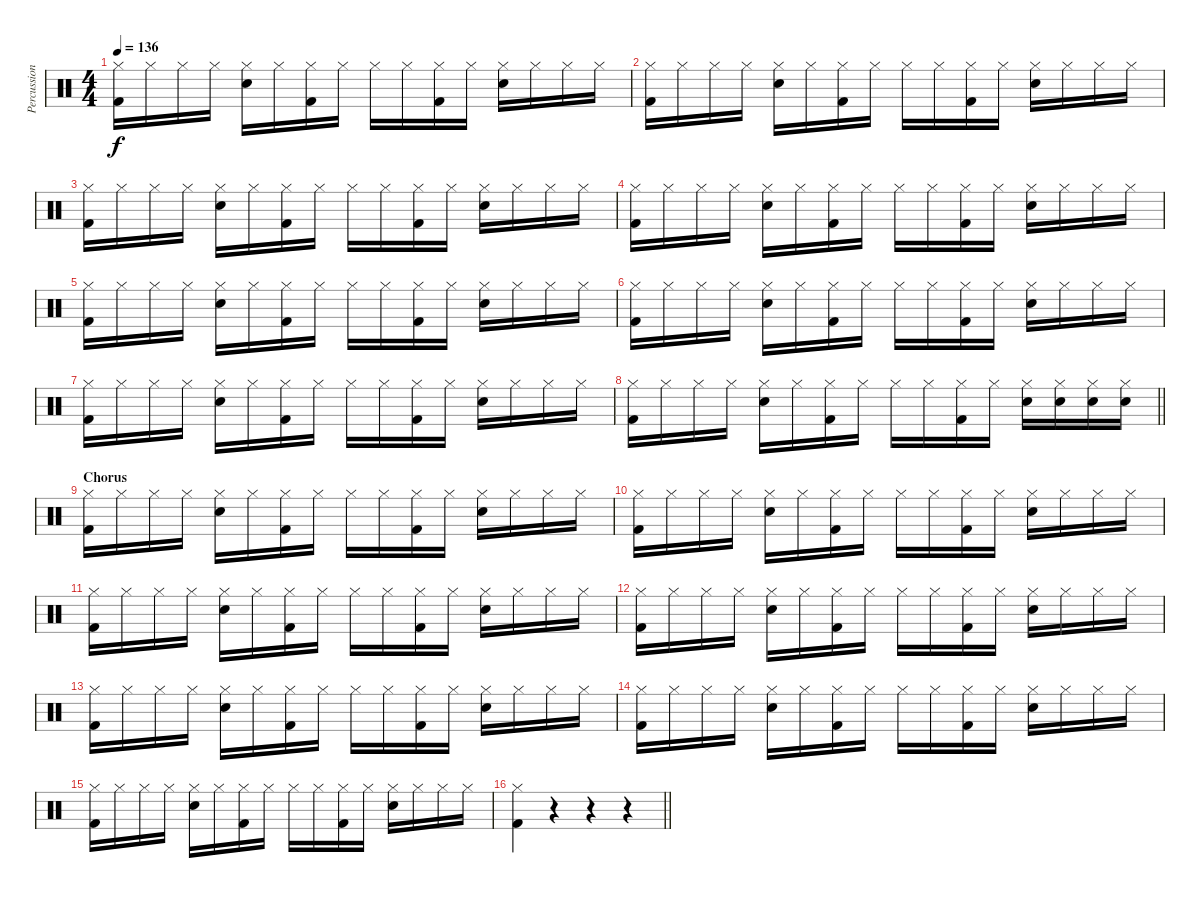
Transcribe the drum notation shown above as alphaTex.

\track ("Percussion" "Percussion") {instrument percussion}
\staff {score}
\articulation defaults
\ts (4 4)
\tempo 136
\clef neutral
\ks c
("Hi-Hat (closed)" "Kick (hit) 2").16{dy f} "Hi-Hat (closed)".16 "Hi-Hat (closed)".16 "Hi-Hat (closed)".16 ("Hi-Hat (closed)" "Electric Snare (hit)").16 "Hi-Hat (closed)".16 ("Hi-Hat (closed)" "Kick (hit) 2").16 "Hi-Hat (closed)".16 "Hi-Hat (closed)".16 "Hi-Hat (closed)".16 ("Hi-Hat (closed)" "Kick (hit) 2").16 "Hi-Hat (closed)".16 ("Hi-Hat (closed)" "Electric Snare (hit)").16 "Hi-Hat (closed)".16 "Hi-Hat (closed)".16 "Hi-Hat (closed)".16 |
("Hi-Hat (closed)" "Kick (hit) 2").16 "Hi-Hat (closed)".16 "Hi-Hat (closed)".16 "Hi-Hat (closed)".16 ("Hi-Hat (closed)" "Electric Snare (hit)").16 "Hi-Hat (closed)".16 ("Hi-Hat (closed)" "Kick (hit) 2").16 "Hi-Hat (closed)".16 "Hi-Hat (closed)".16 "Hi-Hat (closed)".16 ("Hi-Hat (closed)" "Kick (hit) 2").16 "Hi-Hat (closed)".16 ("Hi-Hat (closed)" "Electric Snare (hit)").16 "Hi-Hat (closed)".16 "Hi-Hat (closed)".16 "Hi-Hat (closed)".16 |
("Hi-Hat (closed)" "Kick (hit) 2").16 "Hi-Hat (closed)".16 "Hi-Hat (closed)".16 "Hi-Hat (closed)".16 ("Hi-Hat (closed)" "Electric Snare (hit)").16 "Hi-Hat (closed)".16 ("Hi-Hat (closed)" "Kick (hit) 2").16 "Hi-Hat (closed)".16 "Hi-Hat (closed)".16 "Hi-Hat (closed)".16 ("Hi-Hat (closed)" "Kick (hit) 2").16 "Hi-Hat (closed)".16 ("Hi-Hat (closed)" "Electric Snare (hit)").16 "Hi-Hat (closed)".16 "Hi-Hat (closed)".16 "Hi-Hat (closed)".16 |
("Hi-Hat (closed)" "Kick (hit) 2").16 "Hi-Hat (closed)".16 "Hi-Hat (closed)".16 "Hi-Hat (closed)".16 ("Hi-Hat (closed)" "Electric Snare (hit)").16 "Hi-Hat (closed)".16 ("Hi-Hat (closed)" "Kick (hit) 2").16 "Hi-Hat (closed)".16 "Hi-Hat (closed)".16 "Hi-Hat (closed)".16 ("Hi-Hat (closed)" "Kick (hit) 2").16 "Hi-Hat (closed)".16 ("Hi-Hat (closed)" "Electric Snare (hit)").16 "Hi-Hat (closed)".16 "Hi-Hat (closed)".16 "Hi-Hat (closed)".16 |
("Hi-Hat (closed)" "Kick (hit) 2").16 "Hi-Hat (closed)".16 "Hi-Hat (closed)".16 "Hi-Hat (closed)".16 ("Hi-Hat (closed)" "Electric Snare (hit)").16 "Hi-Hat (closed)".16 ("Hi-Hat (closed)" "Kick (hit) 2").16 "Hi-Hat (closed)".16 "Hi-Hat (closed)".16 "Hi-Hat (closed)".16 ("Hi-Hat (closed)" "Kick (hit) 2").16 "Hi-Hat (closed)".16 ("Hi-Hat (closed)" "Electric Snare (hit)").16 "Hi-Hat (closed)".16 "Hi-Hat (closed)".16 "Hi-Hat (closed)".16 |
("Hi-Hat (closed)" "Kick (hit) 2").16 "Hi-Hat (closed)".16 "Hi-Hat (closed)".16 "Hi-Hat (closed)".16 ("Hi-Hat (closed)" "Electric Snare (hit)").16 "Hi-Hat (closed)".16 ("Hi-Hat (closed)" "Kick (hit) 2").16 "Hi-Hat (closed)".16 "Hi-Hat (closed)".16 "Hi-Hat (closed)".16 ("Hi-Hat (closed)" "Kick (hit) 2").16 "Hi-Hat (closed)".16 ("Hi-Hat (closed)" "Electric Snare (hit)").16 "Hi-Hat (closed)".16 "Hi-Hat (closed)".16 "Hi-Hat (closed)".16 |
("Hi-Hat (closed)" "Kick (hit) 2").16 "Hi-Hat (closed)".16 "Hi-Hat (closed)".16 "Hi-Hat (closed)".16 ("Hi-Hat (closed)" "Electric Snare (hit)").16 "Hi-Hat (closed)".16 ("Hi-Hat (closed)" "Kick (hit) 2").16 "Hi-Hat (closed)".16 "Hi-Hat (closed)".16 "Hi-Hat (closed)".16 ("Hi-Hat (closed)" "Kick (hit) 2").16 "Hi-Hat (closed)".16 ("Hi-Hat (closed)" "Electric Snare (hit)").16 "Hi-Hat (closed)".16 "Hi-Hat (closed)".16 "Hi-Hat (closed)".16 |
\barLineRight lightlight
("Hi-Hat (closed)" "Kick (hit) 2").16 "Hi-Hat (closed)".16 "Hi-Hat (closed)".16 "Hi-Hat (closed)".16 ("Hi-Hat (closed)" "Electric Snare (hit)").16 "Hi-Hat (closed)".16 ("Hi-Hat (closed)" "Kick (hit) 2").16 "Hi-Hat (closed)".16 "Hi-Hat (closed)".16 "Hi-Hat (closed)".16 ("Hi-Hat (closed)" "Kick (hit) 2").16 "Hi-Hat (closed)".16 ("Hi-Hat (closed)" "Electric Snare (hit)").16 ("Hi-Hat (closed)" "Electric Snare (hit)").16 ("Hi-Hat (closed)" "Electric Snare (hit)").16 ("Hi-Hat (closed)" "Electric Snare (hit)").16 |
\section ("" "Chorus")
("Hi-Hat (closed)" "Kick (hit) 2").16 "Hi-Hat (closed)".16 "Hi-Hat (closed)".16 "Hi-Hat (closed)".16 ("Hi-Hat (closed)" "Electric Snare (hit)").16 "Hi-Hat (closed)".16 ("Hi-Hat (closed)" "Kick (hit) 2").16 "Hi-Hat (closed)".16 "Hi-Hat (closed)".16 "Hi-Hat (closed)".16 ("Hi-Hat (closed)" "Kick (hit) 2").16 "Hi-Hat (closed)".16 ("Hi-Hat (closed)" "Electric Snare (hit)").16 "Hi-Hat (closed)".16 "Hi-Hat (closed)".16 "Hi-Hat (closed)".16 |
("Hi-Hat (closed)" "Kick (hit) 2").16 "Hi-Hat (closed)".16 "Hi-Hat (closed)".16 "Hi-Hat (closed)".16 ("Hi-Hat (closed)" "Electric Snare (hit)").16 "Hi-Hat (closed)".16 ("Hi-Hat (closed)" "Kick (hit) 2").16 "Hi-Hat (closed)".16 "Hi-Hat (closed)".16 "Hi-Hat (closed)".16 ("Hi-Hat (closed)" "Kick (hit) 2").16 "Hi-Hat (closed)".16 ("Hi-Hat (closed)" "Electric Snare (hit)").16 "Hi-Hat (closed)".16 "Hi-Hat (closed)".16 "Hi-Hat (closed)".16 |
("Hi-Hat (closed)" "Kick (hit) 2").16 "Hi-Hat (closed)".16 "Hi-Hat (closed)".16 "Hi-Hat (closed)".16 ("Hi-Hat (closed)" "Electric Snare (hit)").16 "Hi-Hat (closed)".16 ("Hi-Hat (closed)" "Kick (hit) 2").16 "Hi-Hat (closed)".16 "Hi-Hat (closed)".16 "Hi-Hat (closed)".16 ("Hi-Hat (closed)" "Kick (hit) 2").16 "Hi-Hat (closed)".16 ("Hi-Hat (closed)" "Electric Snare (hit)").16 "Hi-Hat (closed)".16 "Hi-Hat (closed)".16 "Hi-Hat (closed)".16 |
("Hi-Hat (closed)" "Kick (hit) 2").16 "Hi-Hat (closed)".16 "Hi-Hat (closed)".16 "Hi-Hat (closed)".16 ("Hi-Hat (closed)" "Electric Snare (hit)").16 "Hi-Hat (closed)".16 ("Hi-Hat (closed)" "Kick (hit) 2").16 "Hi-Hat (closed)".16 "Hi-Hat (closed)".16 "Hi-Hat (closed)".16 ("Hi-Hat (closed)" "Kick (hit) 2").16 "Hi-Hat (closed)".16 ("Hi-Hat (closed)" "Electric Snare (hit)").16 "Hi-Hat (closed)".16 "Hi-Hat (closed)".16 "Hi-Hat (closed)".16 |
("Hi-Hat (closed)" "Kick (hit) 2").16 "Hi-Hat (closed)".16 "Hi-Hat (closed)".16 "Hi-Hat (closed)".16 ("Hi-Hat (closed)" "Electric Snare (hit)").16 "Hi-Hat (closed)".16 ("Hi-Hat (closed)" "Kick (hit) 2").16 "Hi-Hat (closed)".16 "Hi-Hat (closed)".16 "Hi-Hat (closed)".16 ("Hi-Hat (closed)" "Kick (hit) 2").16 "Hi-Hat (closed)".16 ("Hi-Hat (closed)" "Electric Snare (hit)").16 "Hi-Hat (closed)".16 "Hi-Hat (closed)".16 "Hi-Hat (closed)".16 |
("Hi-Hat (closed)" "Kick (hit) 2").16 "Hi-Hat (closed)".16 "Hi-Hat (closed)".16 "Hi-Hat (closed)".16 ("Hi-Hat (closed)" "Electric Snare (hit)").16 "Hi-Hat (closed)".16 ("Hi-Hat (closed)" "Kick (hit) 2").16 "Hi-Hat (closed)".16 "Hi-Hat (closed)".16 "Hi-Hat (closed)".16 ("Hi-Hat (closed)" "Kick (hit) 2").16 "Hi-Hat (closed)".16 ("Hi-Hat (closed)" "Electric Snare (hit)").16 "Hi-Hat (closed)".16 "Hi-Hat (closed)".16 "Hi-Hat (closed)".16 |
("Hi-Hat (closed)" "Kick (hit) 2").16 "Hi-Hat (closed)".16 "Hi-Hat (closed)".16 "Hi-Hat (closed)".16 ("Hi-Hat (closed)" "Electric Snare (hit)").16 "Hi-Hat (closed)".16 ("Hi-Hat (closed)" "Kick (hit) 2").16 "Hi-Hat (closed)".16 "Hi-Hat (closed)".16 "Hi-Hat (closed)".16 ("Hi-Hat (closed)" "Kick (hit) 2").16 "Hi-Hat (closed)".16 ("Hi-Hat (closed)" "Electric Snare (hit)").16 "Hi-Hat (closed)".16 "Hi-Hat (closed)".16 "Hi-Hat (closed)".16 |
\barLineRight lightlight
("Hi-Hat (closed)" "Kick (hit) 2").4 r.4 r.4 r.4
